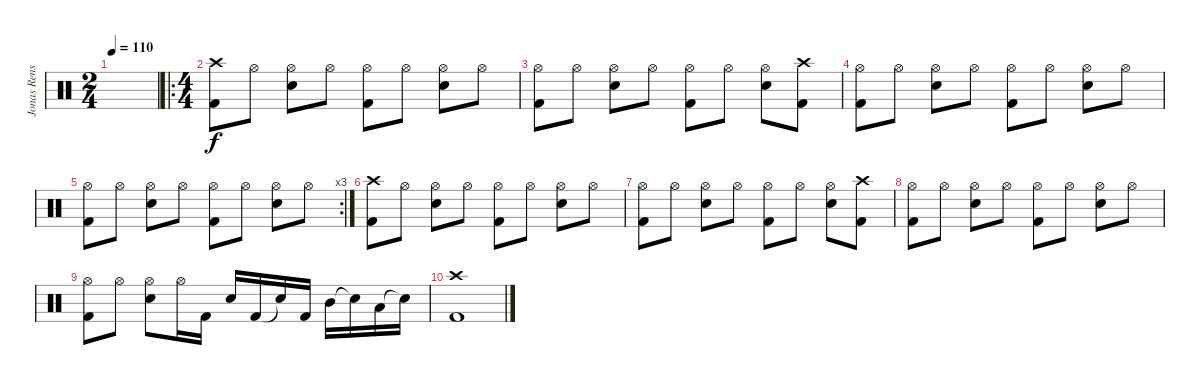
\track ("Jonas Renske" "Jonas Rens") {instrument percussion}
\staff {score}
\articulation defaults
\ts (2 4)
\tempo 110
\clef neutral
\ks c
|
\ro
\ts (4 4)
("Kick (hit) 2" "Crash high (hit)").8 "Hi-Hat (open)".8 ("Electric Snare (hit)" "Hi-Hat (open)").8 "Hi-Hat (open)".8 ("Kick (hit) 2" "Hi-Hat (open)").8 "Hi-Hat (open)".8 ("Electric Snare (hit)" "Hi-Hat (open)").8 "Hi-Hat (open)".8 |
("Kick (hit) 2" "Hi-Hat (open)").8 "Hi-Hat (open)".8 ("Electric Snare (hit)" "Hi-Hat (open)").8 "Hi-Hat (open)".8 ("Kick (hit) 2" "Hi-Hat (open)").8 "Hi-Hat (open)".8 ("Electric Snare (hit)" "Hi-Hat (open)").8 ("Kick (hit) 2" "Crash high (hit)").8 |
("Kick (hit) 2" "Hi-Hat (open)").8 "Hi-Hat (open)".8 ("Electric Snare (hit)" "Hi-Hat (open)").8 "Hi-Hat (open)".8 ("Kick (hit) 2" "Hi-Hat (open)").8 "Hi-Hat (open)".8 ("Electric Snare (hit)" "Hi-Hat (open)").8 "Hi-Hat (open)".8 |
\rc 3
("Kick (hit) 2" "Hi-Hat (open)").8 "Hi-Hat (open)".8 ("Electric Snare (hit)" "Hi-Hat (open)").8 "Hi-Hat (open)".8 ("Kick (hit) 2" "Hi-Hat (open)").8 "Hi-Hat (open)".8 ("Electric Snare (hit)" "Hi-Hat (open)").8 "Hi-Hat (open)".8 |
("Kick (hit) 2" "Crash high (hit)").8 "Hi-Hat (open)".8 ("Electric Snare (hit)" "Hi-Hat (open)").8 "Hi-Hat (open)".8 ("Kick (hit) 2" "Hi-Hat (open)").8 "Hi-Hat (open)".8 ("Electric Snare (hit)" "Hi-Hat (open)").8 "Hi-Hat (open)".8 |
("Kick (hit) 2" "Hi-Hat (open)").8 "Hi-Hat (open)".8 ("Electric Snare (hit)" "Hi-Hat (open)").8 "Hi-Hat (open)".8 ("Kick (hit) 2" "Hi-Hat (open)").8 "Hi-Hat (open)".8 ("Electric Snare (hit)" "Hi-Hat (open)").8 ("Kick (hit) 2" "Crash high (hit)").8 |
("Kick (hit) 2" "Hi-Hat (open)").8 "Hi-Hat (open)".8 ("Electric Snare (hit)" "Hi-Hat (open)").8 "Hi-Hat (open)".8 ("Kick (hit) 2" "Hi-Hat (open)").8 "Hi-Hat (open)".8 ("Electric Snare (hit)" "Hi-Hat (open)").8 "Hi-Hat (open)".8 |
("Kick (hit) 2" "Hi-Hat (open)").8 "Hi-Hat (open)".8 ("Electric Snare (hit)" "Hi-Hat (open)").8 "Hi-Hat (open)".16 "Kick (hit) 2".16 "Electric Snare (hit)".16 "Kick (hit) 2".16 "Snare (hit)"{t}.16 "Kick (hit) 2".16 "Mid Tom (hit)".16 "Snare (hit)"{t}.16 "Low Tom (hit)".16 "Snare (hit)"{t}.16 |
("Kick (hit) 2" "Crash high (hit)").1
